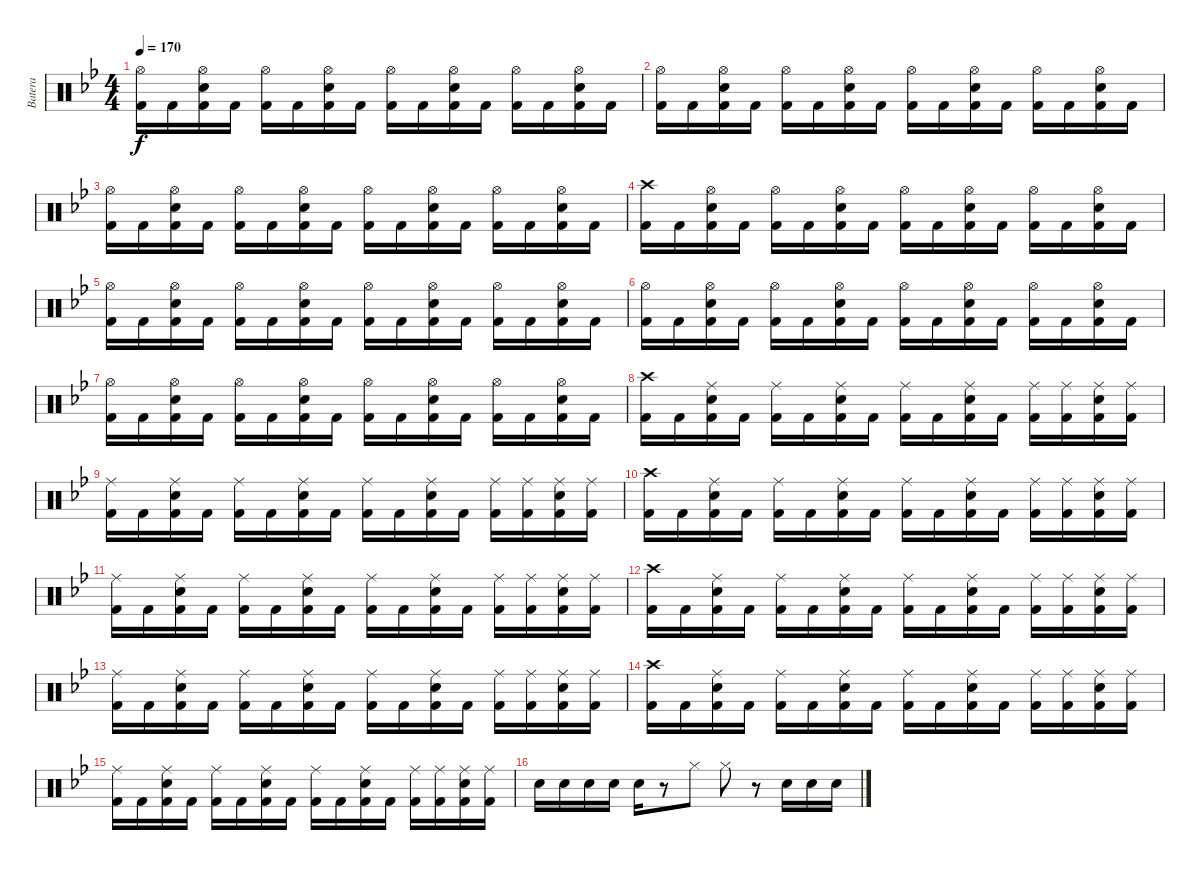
\track ("Batera" "Batera") {instrument percussion}
\staff {score}
\articulation defaults
\ts (4 4)
\tempo 170
\clef neutral
\ks bb
("Hi-Hat (open)" "Kick (hit) 2").16{dy f} "Kick (hit) 2".16 ("Hi-Hat (open)" "Electric Snare (hit)" "Kick (hit) 2").16 "Kick (hit) 2".16 ("Hi-Hat (open)" "Kick (hit) 2").16 "Kick (hit) 2".16 ("Hi-Hat (open)" "Electric Snare (hit)" "Kick (hit) 2").16 "Kick (hit) 2".16 ("Hi-Hat (open)" "Kick (hit) 2").16 "Kick (hit) 2".16 ("Hi-Hat (open)" "Electric Snare (hit)" "Kick (hit) 2").16 "Kick (hit) 2".16 ("Hi-Hat (open)" "Kick (hit) 2").16 "Kick (hit) 2".16 ("Hi-Hat (open)" "Electric Snare (hit)" "Kick (hit) 2").16 "Kick (hit) 2".16 |
("Hi-Hat (open)" "Kick (hit) 2").16 "Kick (hit) 2".16 ("Hi-Hat (open)" "Electric Snare (hit)" "Kick (hit) 2").16 "Kick (hit) 2".16 ("Hi-Hat (open)" "Kick (hit) 2").16 "Kick (hit) 2".16 ("Hi-Hat (open)" "Electric Snare (hit)" "Kick (hit) 2").16 "Kick (hit) 2".16 ("Hi-Hat (open)" "Kick (hit) 2").16 "Kick (hit) 2".16 ("Hi-Hat (open)" "Electric Snare (hit)" "Kick (hit) 2").16 "Kick (hit) 2".16 ("Hi-Hat (open)" "Kick (hit) 2").16 "Kick (hit) 2".16 ("Hi-Hat (open)" "Electric Snare (hit)" "Kick (hit) 2").16 "Kick (hit) 2".16 |
("Hi-Hat (open)" "Kick (hit) 2").16 "Kick (hit) 2".16 ("Hi-Hat (open)" "Electric Snare (hit)" "Kick (hit) 2").16 "Kick (hit) 2".16 ("Hi-Hat (open)" "Kick (hit) 2").16 "Kick (hit) 2".16 ("Hi-Hat (open)" "Electric Snare (hit)" "Kick (hit) 2").16 "Kick (hit) 2".16 ("Hi-Hat (open)" "Kick (hit) 2").16 "Kick (hit) 2".16 ("Hi-Hat (open)" "Electric Snare (hit)" "Kick (hit) 2").16 "Kick (hit) 2".16 ("Hi-Hat (open)" "Kick (hit) 2").16 "Kick (hit) 2".16 ("Hi-Hat (open)" "Electric Snare (hit)" "Kick (hit) 2").16 "Kick (hit) 2".16 |
("Crash high (hit)" "Kick (hit) 2").16 "Kick (hit) 2".16 ("Hi-Hat (open)" "Electric Snare (hit)" "Kick (hit) 2").16 "Kick (hit) 2".16 ("Hi-Hat (open)" "Kick (hit) 2").16 "Kick (hit) 2".16 ("Hi-Hat (open)" "Electric Snare (hit)" "Kick (hit) 2").16 "Kick (hit) 2".16 ("Hi-Hat (open)" "Kick (hit) 2").16 "Kick (hit) 2".16 ("Hi-Hat (open)" "Electric Snare (hit)" "Kick (hit) 2").16 "Kick (hit) 2".16 ("Hi-Hat (open)" "Kick (hit) 2").16 "Kick (hit) 2".16 ("Hi-Hat (open)" "Electric Snare (hit)" "Kick (hit) 2").16 "Kick (hit) 2".16 |
("Hi-Hat (open)" "Kick (hit) 2").16 "Kick (hit) 2".16 ("Hi-Hat (open)" "Electric Snare (hit)" "Kick (hit) 2").16 "Kick (hit) 2".16 ("Hi-Hat (open)" "Kick (hit) 2").16 "Kick (hit) 2".16 ("Hi-Hat (open)" "Electric Snare (hit)" "Kick (hit) 2").16 "Kick (hit) 2".16 ("Hi-Hat (open)" "Kick (hit) 2").16 "Kick (hit) 2".16 ("Hi-Hat (open)" "Electric Snare (hit)" "Kick (hit) 2").16 "Kick (hit) 2".16 ("Hi-Hat (open)" "Kick (hit) 2").16 "Kick (hit) 2".16 ("Hi-Hat (open)" "Electric Snare (hit)" "Kick (hit) 2").16 "Kick (hit) 2".16 |
("Hi-Hat (open)" "Kick (hit) 2").16 "Kick (hit) 2".16 ("Hi-Hat (open)" "Electric Snare (hit)" "Kick (hit) 2").16 "Kick (hit) 2".16 ("Hi-Hat (open)" "Kick (hit) 2").16 "Kick (hit) 2".16 ("Hi-Hat (open)" "Electric Snare (hit)" "Kick (hit) 2").16 "Kick (hit) 2".16 ("Hi-Hat (open)" "Kick (hit) 2").16 "Kick (hit) 2".16 ("Hi-Hat (open)" "Electric Snare (hit)" "Kick (hit) 2").16 "Kick (hit) 2".16 ("Hi-Hat (open)" "Kick (hit) 2").16 "Kick (hit) 2".16 ("Hi-Hat (open)" "Electric Snare (hit)" "Kick (hit) 2").16 "Kick (hit) 2".16 |
("Hi-Hat (open)" "Kick (hit) 2").16 "Kick (hit) 2".16 ("Hi-Hat (open)" "Electric Snare (hit)" "Kick (hit) 2").16 "Kick (hit) 2".16 ("Hi-Hat (open)" "Kick (hit) 2").16 "Kick (hit) 2".16 ("Hi-Hat (open)" "Electric Snare (hit)" "Kick (hit) 2").16 "Kick (hit) 2".16 ("Hi-Hat (open)" "Kick (hit) 2").16 "Kick (hit) 2".16 ("Hi-Hat (open)" "Electric Snare (hit)" "Kick (hit) 2").16 "Kick (hit) 2".16 ("Hi-Hat (open)" "Kick (hit) 2").16 "Kick (hit) 2".16 ("Hi-Hat (open)" "Electric Snare (hit)" "Kick (hit) 2").16 "Kick (hit) 2".16 |
("Crash high (hit)" "Kick (hit) 2").16 "Kick (hit) 2".16 ("Ride (middle)" "Electric Snare (hit)" "Kick (hit) 2").16 "Kick (hit) 2".16 ("Ride (middle)" "Kick (hit) 2").16 "Kick (hit) 2".16 ("Ride (middle)" "Electric Snare (hit)" "Kick (hit) 2").16 "Kick (hit) 2".16 ("Ride (middle)" "Kick (hit) 2").16 "Kick (hit) 2".16 ("Ride (middle)" "Electric Snare (hit)" "Kick (hit) 2").16 "Kick (hit) 2".16 ("Ride (middle)" "Kick (hit) 2").16 ("Ride (middle)" "Kick (hit) 2").16 ("Ride (middle)" "Electric Snare (hit)" "Kick (hit) 2").16 ("Ride (middle)" "Kick (hit) 2").16 |
("Ride (middle)" "Kick (hit) 2").16 "Kick (hit) 2".16 ("Ride (middle)" "Electric Snare (hit)" "Kick (hit) 2").16 "Kick (hit) 2".16 ("Ride (middle)" "Kick (hit) 2").16 "Kick (hit) 2".16 ("Ride (middle)" "Electric Snare (hit)" "Kick (hit) 2").16 "Kick (hit) 2".16 ("Ride (middle)" "Kick (hit) 2").16 "Kick (hit) 2".16 ("Ride (middle)" "Electric Snare (hit)" "Kick (hit) 2").16 "Kick (hit) 2".16 ("Ride (middle)" "Kick (hit) 2").16 ("Ride (middle)" "Kick (hit) 2").16 ("Ride (middle)" "Electric Snare (hit)" "Kick (hit) 2").16 ("Ride (middle)" "Kick (hit) 2").16 |
("Crash high (hit)" "Kick (hit) 2").16 "Kick (hit) 2".16 ("Ride (middle)" "Electric Snare (hit)" "Kick (hit) 2").16 "Kick (hit) 2".16 ("Ride (middle)" "Kick (hit) 2").16 "Kick (hit) 2".16 ("Ride (middle)" "Electric Snare (hit)" "Kick (hit) 2").16 "Kick (hit) 2".16 ("Ride (middle)" "Kick (hit) 2").16 "Kick (hit) 2".16 ("Ride (middle)" "Electric Snare (hit)" "Kick (hit) 2").16 "Kick (hit) 2".16 ("Ride (middle)" "Kick (hit) 2").16 ("Ride (middle)" "Kick (hit) 2").16 ("Ride (middle)" "Electric Snare (hit)" "Kick (hit) 2").16 ("Ride (middle)" "Kick (hit) 2").16 |
("Ride (middle)" "Kick (hit) 2").16 "Kick (hit) 2".16 ("Ride (middle)" "Electric Snare (hit)" "Kick (hit) 2").16 "Kick (hit) 2".16 ("Ride (middle)" "Kick (hit) 2").16 "Kick (hit) 2".16 ("Ride (middle)" "Electric Snare (hit)" "Kick (hit) 2").16 "Kick (hit) 2".16 ("Ride (middle)" "Kick (hit) 2").16 "Kick (hit) 2".16 ("Ride (middle)" "Electric Snare (hit)" "Kick (hit) 2").16 "Kick (hit) 2".16 ("Ride (middle)" "Kick (hit) 2").16 ("Ride (middle)" "Kick (hit) 2").16 ("Ride (middle)" "Electric Snare (hit)" "Kick (hit) 2").16 ("Ride (middle)" "Kick (hit) 2").16 |
("Crash high (hit)" "Kick (hit) 2").16 "Kick (hit) 2".16 ("Ride (middle)" "Electric Snare (hit)" "Kick (hit) 2").16 "Kick (hit) 2".16 ("Ride (middle)" "Kick (hit) 2").16 "Kick (hit) 2".16 ("Ride (middle)" "Electric Snare (hit)" "Kick (hit) 2").16 "Kick (hit) 2".16 ("Ride (middle)" "Kick (hit) 2").16 "Kick (hit) 2".16 ("Ride (middle)" "Electric Snare (hit)" "Kick (hit) 2").16 "Kick (hit) 2".16 ("Ride (middle)" "Kick (hit) 2").16 ("Ride (middle)" "Kick (hit) 2").16 ("Ride (middle)" "Electric Snare (hit)" "Kick (hit) 2").16 ("Ride (middle)" "Kick (hit) 2").16 |
("Ride (middle)" "Kick (hit) 2").16 "Kick (hit) 2".16 ("Ride (middle)" "Electric Snare (hit)" "Kick (hit) 2").16 "Kick (hit) 2".16 ("Ride (middle)" "Kick (hit) 2").16 "Kick (hit) 2".16 ("Ride (middle)" "Electric Snare (hit)" "Kick (hit) 2").16 "Kick (hit) 2".16 ("Ride (middle)" "Kick (hit) 2").16 "Kick (hit) 2".16 ("Ride (middle)" "Electric Snare (hit)" "Kick (hit) 2").16 "Kick (hit) 2".16 ("Ride (middle)" "Kick (hit) 2").16 ("Ride (middle)" "Kick (hit) 2").16 ("Ride (middle)" "Electric Snare (hit)" "Kick (hit) 2").16 ("Ride (middle)" "Kick (hit) 2").16 |
("Crash high (hit)" "Kick (hit) 2").16 "Kick (hit) 2".16 ("Ride (middle)" "Electric Snare (hit)" "Kick (hit) 2").16 "Kick (hit) 2".16 ("Ride (middle)" "Kick (hit) 2").16 "Kick (hit) 2".16 ("Ride (middle)" "Electric Snare (hit)" "Kick (hit) 2").16 "Kick (hit) 2".16 ("Ride (middle)" "Kick (hit) 2").16 "Kick (hit) 2".16 ("Ride (middle)" "Electric Snare (hit)" "Kick (hit) 2").16 "Kick (hit) 2".16 ("Ride (middle)" "Kick (hit) 2").16 ("Ride (middle)" "Kick (hit) 2").16 ("Ride (middle)" "Electric Snare (hit)" "Kick (hit) 2").16 ("Ride (middle)" "Kick (hit) 2").16 |
("Ride (middle)" "Kick (hit) 2").16 "Kick (hit) 2".16 ("Ride (middle)" "Electric Snare (hit)" "Kick (hit) 2").16 "Kick (hit) 2".16 ("Ride (middle)" "Kick (hit) 2").16 "Kick (hit) 2".16 ("Ride (middle)" "Electric Snare (hit)" "Kick (hit) 2").16 "Kick (hit) 2".16 ("Ride (middle)" "Kick (hit) 2").16 "Kick (hit) 2".16 ("Ride (middle)" "Electric Snare (hit)" "Kick (hit) 2").16 "Kick (hit) 2".16 ("Ride (middle)" "Kick (hit) 2").16 ("Ride (middle)" "Kick (hit) 2").16 ("Ride (middle)" "Electric Snare (hit)" "Kick (hit) 2").16 ("Ride (middle)" "Kick (hit) 2").16 |
"Electric Snare (hit)".16 "Electric Snare (hit)".16 "Electric Snare (hit)".16 "Electric Snare (hit)".16 "Electric Snare (hit)".16 r.8 "Hi-Hat (closed)".8 "Hi-Hat (closed)".8 r.8 "Electric Snare (hit)".16 "Electric Snare (hit)".16 "Electric Snare (hit)".16
